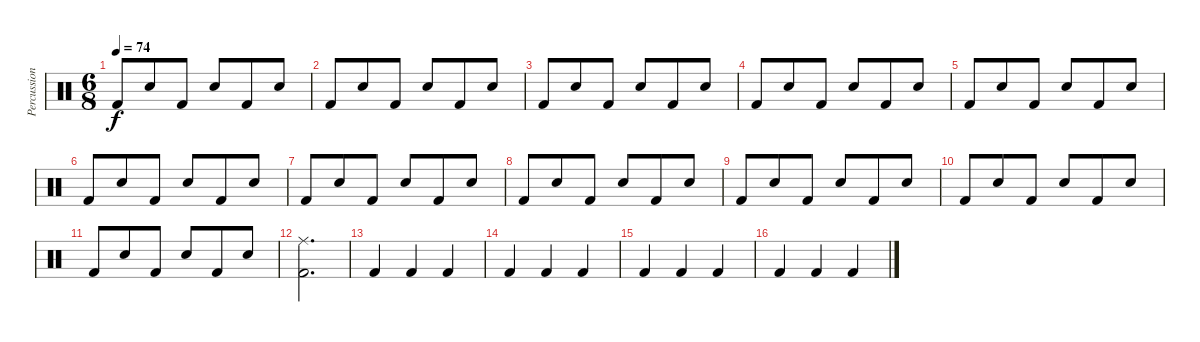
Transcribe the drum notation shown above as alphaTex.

\track ("Percussion" "Percussion") {instrument percussion}
\staff {score}
\articulation defaults
\ts (6 8)
\tempo 74
\clef neutral
\ks c "Kick (hit) 2".8{dy f} "Snare (hit) 2".8 "Kick (hit) 2".8 "Snare (hit) 2".8 "Kick (hit) 2".8 "Snare (hit) 2".8
|
"Kick (hit) 2".8 "Snare (hit) 2".8 "Kick (hit) 2".8 "Snare (hit) 2".8 "Kick (hit) 2".8 "Snare (hit) 2".8 |
"Kick (hit) 2".8 "Snare (hit) 2".8 "Kick (hit) 2".8 "Snare (hit) 2".8 "Kick (hit) 2".8 "Snare (hit) 2".8 |
"Kick (hit) 2".8 "Snare (hit) 2".8 "Kick (hit) 2".8 "Snare (hit) 2".8 "Kick (hit) 2".8 "Snare (hit) 2".8 |
"Kick (hit) 2".8 "Snare (hit) 2".8 "Kick (hit) 2".8 "Snare (hit) 2".8 "Kick (hit) 2".8 "Snare (hit) 2".8 |
"Kick (hit) 2".8 "Snare (hit) 2".8 "Kick (hit) 2".8 "Snare (hit) 2".8 "Kick (hit) 2".8 "Snare (hit) 2".8 |
"Kick (hit) 2".8 "Snare (hit) 2".8 "Kick (hit) 2".8 "Snare (hit) 2".8 "Kick (hit) 2".8 "Snare (hit) 2".8 |
"Kick (hit) 2".8 "Snare (hit) 2".8 "Kick (hit) 2".8 "Snare (hit) 2".8 "Kick (hit) 2".8 "Snare (hit) 2".8 |
"Kick (hit) 2".8 "Snare (hit) 2".8 "Kick (hit) 2".8 "Snare (hit) 2".8 "Kick (hit) 2".8 "Snare (hit) 2".8 |
"Kick (hit) 2".8 "Snare (hit) 2".8 "Kick (hit) 2".8 "Snare (hit) 2".8 "Kick (hit) 2".8 "Snare (hit) 2".8 |
"Kick (hit) 2".8 "Snare (hit) 2".8 "Kick (hit) 2".8 "Snare (hit) 2".8 "Kick (hit) 2".8 "Snare (hit) 2".8 |
("Ride (middle)" "Kick (hit) 2").2{d} |
"Kick (hit) 2".4 "Kick (hit) 2".4 "Kick (hit) 2".4 |
"Kick (hit) 2".4 "Kick (hit) 2".4 "Kick (hit) 2".4 |
"Kick (hit) 2".4 "Kick (hit) 2".4 "Kick (hit) 2".4 |
"Kick (hit) 2".4 "Kick (hit) 2".4 "Kick (hit) 2".4
